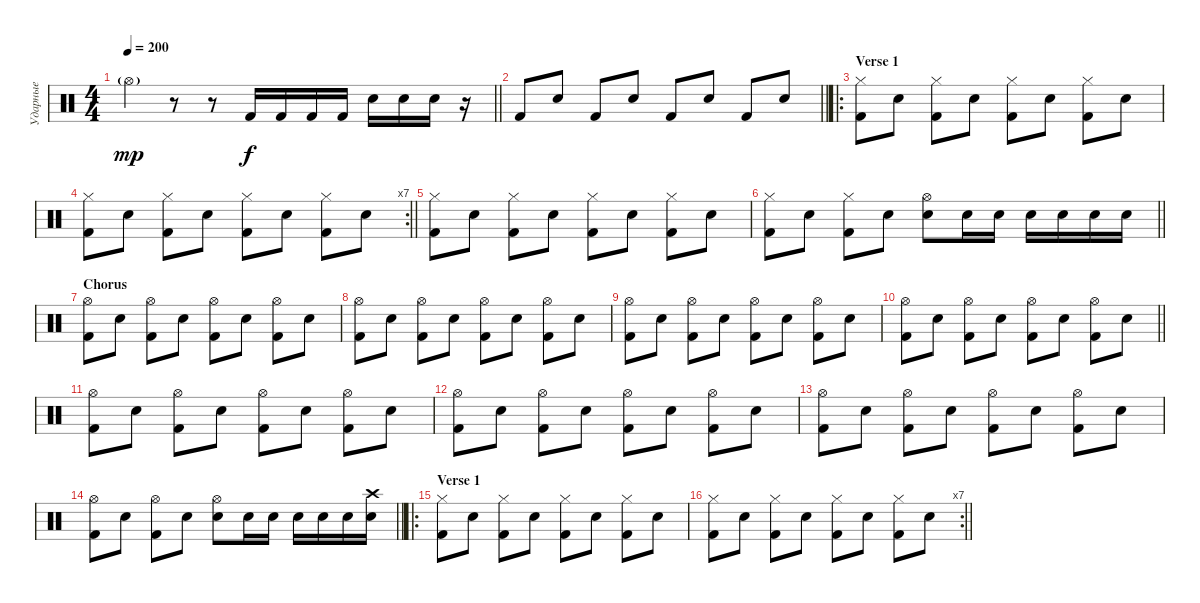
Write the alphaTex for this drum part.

\track ("Ударные" "Ударные") {instrument percussion}
\staff {score}
\articulation defaults
\ts (4 4)
\tempo 200
\clef neutral
\barLineRight lightlight
\ks c "Hi-Hat (open)"{g}.4{dy mp}
r.8 r.8 "Kick (hit) 2".16{dy f} "Kick (hit) 2".16 "Kick (hit) 2".16 "Kick (hit) 2".16 "Snare (hit) 2".16 "Snare (hit) 2".16 "Snare (hit) 2".16 r.16 |
\barLineRight lightlight "Kick (hit) 2".8 "Snare (hit) 2".8 "Kick (hit) 2".8 "Snare (hit) 2".8 "Kick (hit) 2".8 "Snare (hit) 2".8 "Kick (hit) 2".8 "Snare (hit) 2".8
|
\ro
\section ("" "Verse 1")
("Hi-Hat (closed)" "Kick (hit) 2").8 "Snare (hit) 2".8 ("Hi-Hat (closed)" "Kick (hit) 2").8 "Snare (hit) 2".8 ("Hi-Hat (closed)" "Kick (hit) 2").8 "Snare (hit) 2".8 ("Hi-Hat (closed)" "Kick (hit) 2").8 "Snare (hit) 2".8 |
\rc 7
\barLineRight lightlight
("Hi-Hat (closed)" "Kick (hit) 2").8 "Snare (hit) 2".8 ("Hi-Hat (closed)" "Kick (hit) 2").8 "Snare (hit) 2".8 ("Hi-Hat (closed)" "Kick (hit) 2").8 "Snare (hit) 2".8 ("Hi-Hat (closed)" "Kick (hit) 2").8 "Snare (hit) 2".8 |
("Hi-Hat (closed)" "Kick (hit) 2").8 "Snare (hit) 2".8 ("Hi-Hat (closed)" "Kick (hit) 2").8 "Snare (hit) 2".8 ("Hi-Hat (closed)" "Kick (hit) 2").8 "Snare (hit) 2".8 ("Hi-Hat (closed)" "Kick (hit) 2").8 "Snare (hit) 2".8 |
\barLineRight lightlight
("Hi-Hat (closed)" "Kick (hit) 2").8 "Snare (hit) 2".8 ("Hi-Hat (closed)" "Kick (hit) 2").8 "Snare (hit) 2".8 ("Hi-Hat (open)" "Snare (hit) 2").8 "Snare (hit) 2".16 "Snare (hit) 2".16 "Snare (hit) 2".16 "Snare (hit) 2".16 "Snare (hit) 2".16 "Snare (hit) 2".16 |
\section ("" "Chorus")
("Hi-Hat (open)" "Kick (hit) 2").8 "Snare (hit) 2".8 ("Hi-Hat (open)" "Kick (hit) 2").8 "Snare (hit) 2".8 ("Hi-Hat (open)" "Kick (hit) 2").8 "Snare (hit) 2".8 ("Hi-Hat (open)" "Kick (hit) 2").8 "Snare (hit) 2".8 |
("Hi-Hat (open)" "Kick (hit) 2").8 "Snare (hit) 2".8 ("Hi-Hat (open)" "Kick (hit) 2").8 "Snare (hit) 2".8 ("Hi-Hat (open)" "Kick (hit) 2").8 "Snare (hit) 2".8 ("Hi-Hat (open)" "Kick (hit) 2").8 "Snare (hit) 2".8 |
("Hi-Hat (open)" "Kick (hit) 2").8 "Snare (hit) 2".8 ("Hi-Hat (open)" "Kick (hit) 2").8 "Snare (hit) 2".8 ("Hi-Hat (open)" "Kick (hit) 2").8 "Snare (hit) 2".8 ("Hi-Hat (open)" "Kick (hit) 2").8 "Snare (hit) 2".8 |
\barLineRight lightlight
("Hi-Hat (open)" "Kick (hit) 2").8 "Snare (hit) 2".8 ("Hi-Hat (open)" "Kick (hit) 2").8 "Snare (hit) 2".8 ("Hi-Hat (open)" "Kick (hit) 2").8 "Snare (hit) 2".8 ("Hi-Hat (open)" "Kick (hit) 2").8 "Snare (hit) 2".8 |
("Hi-Hat (open)" "Kick (hit) 2").8 "Snare (hit) 2".8 ("Hi-Hat (open)" "Kick (hit) 2").8 "Snare (hit) 2".8 ("Hi-Hat (open)" "Kick (hit) 2").8 "Snare (hit) 2".8 ("Hi-Hat (open)" "Kick (hit) 2").8 "Snare (hit) 2".8 |
("Hi-Hat (open)" "Kick (hit) 2").8 "Snare (hit) 2".8 ("Hi-Hat (open)" "Kick (hit) 2").8 "Snare (hit) 2".8 ("Hi-Hat (open)" "Kick (hit) 2").8 "Snare (hit) 2".8 ("Hi-Hat (open)" "Kick (hit) 2").8 "Snare (hit) 2".8 |
("Hi-Hat (open)" "Kick (hit) 2").8 "Snare (hit) 2".8 ("Hi-Hat (open)" "Kick (hit) 2").8 "Snare (hit) 2".8 ("Hi-Hat (open)" "Kick (hit) 2").8 "Snare (hit) 2".8 ("Hi-Hat (open)" "Kick (hit) 2").8 "Snare (hit) 2".8 |
\barLineRight lightlight
("Hi-Hat (open)" "Kick (hit) 2").8 "Snare (hit) 2".8 ("Hi-Hat (open)" "Kick (hit) 2").8 "Snare (hit) 2".8 ("Hi-Hat (open)" "Snare (hit) 2").8 "Snare (hit) 2".16 "Snare (hit) 2".16 "Snare (hit) 2".16 "Snare (hit) 2".16 "Snare (hit) 2".16 ("Crash high (hit)" "Snare (hit) 2").16 |
\ro
\section ("" "Verse 1")
("Hi-Hat (closed)" "Kick (hit) 2").8 "Snare (hit) 2".8 ("Hi-Hat (closed)" "Kick (hit) 2").8 "Snare (hit) 2".8 ("Hi-Hat (closed)" "Kick (hit) 2").8 "Snare (hit) 2".8 ("Hi-Hat (closed)" "Kick (hit) 2").8 "Snare (hit) 2".8 |
\rc 7
\barLineRight lightlight
("Hi-Hat (closed)" "Kick (hit) 2").8 "Snare (hit) 2".8 ("Hi-Hat (closed)" "Kick (hit) 2").8 "Snare (hit) 2".8 ("Hi-Hat (closed)" "Kick (hit) 2").8 "Snare (hit) 2".8 ("Hi-Hat (closed)" "Kick (hit) 2").8 "Snare (hit) 2".8
